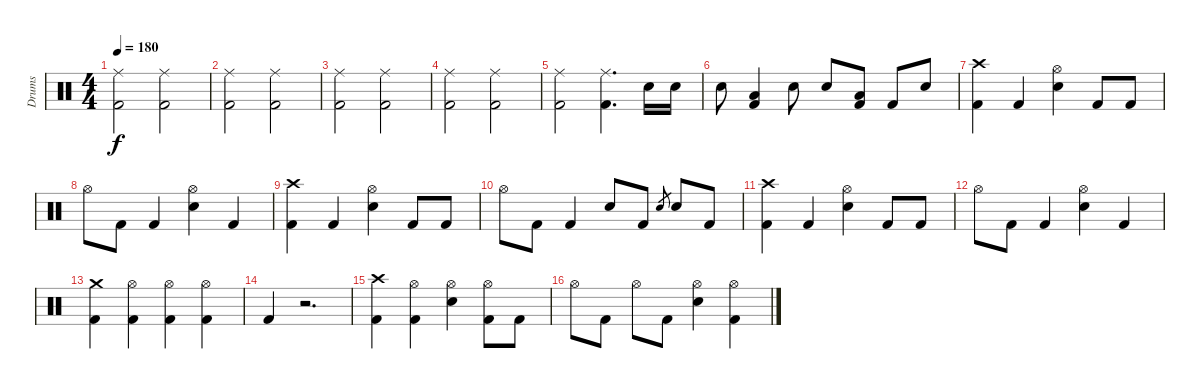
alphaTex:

\track ("Drums" "Drums") {instrument percussion}
\staff {score}
\articulation defaults
\ts (4 4)
\tempo 180
\clef neutral
\ks c
("Ride (middle)" "Kick (hit) 2").2{dy f} ("Ride (middle)" "Kick (hit) 2").2 |
("Ride (middle)" "Kick (hit) 2").2 ("Ride (middle)" "Kick (hit) 2").2 |
("Ride (middle)" "Kick (hit) 2").2 ("Ride (middle)" "Kick (hit) 2").2 |
("Ride (middle)" "Kick (hit) 2").2 ("Ride (middle)" "Kick (hit) 2").2 |
("Ride (middle)" "Kick (hit) 2").2 ("Ride (middle)" "Kick (hit) 2").4{d} "Electric Snare (hit)".16 "Electric Snare (hit)".16 |
"Electric Snare (hit)".8 ("Low Floor Tom (hit)" "Kick (hit) 2").4 "Electric Snare (hit)".8 "Electric Snare (hit)".8 ("Low Floor Tom (hit)" "Kick (hit) 2").8 "Kick (hit) 2".8 "Electric Snare (hit)".8 |
("Crash high (hit)" "Kick (hit) 2").4 "Kick (hit) 2".4 ("Hi-Hat (open)" "Electric Snare (hit)").4 "Kick (hit) 2".8 "Kick (hit) 2".8 |
"Hi-Hat (open)".8 "Kick (hit) 2".8 "Kick (hit) 2".4 ("Hi-Hat (open)" "Electric Snare (hit)").4 "Kick (hit) 2".4 |
("Crash high (hit)" "Kick (hit) 2").4 "Kick (hit) 2".4 ("Hi-Hat (open)" "Electric Snare (hit)").4 "Kick (hit) 2".8 "Kick (hit) 2".8 |
"Hi-Hat (open)".8 "Kick (hit) 2".8 "Kick (hit) 2".4 "Electric Snare (hit)".8 "Kick (hit) 2".8 "Electric Snare (hit)".8{gr} "Electric Snare (hit)".8 "Kick (hit) 2".8 |
("Crash high (hit)" "Kick (hit) 2").4 "Kick (hit) 2".4 ("Hi-Hat (open)" "Electric Snare (hit)").4 "Kick (hit) 2".8 "Kick (hit) 2".8 |
"Hi-Hat (open)".8 "Kick (hit) 2".8 "Kick (hit) 2".4 ("Hi-Hat (open)" "Electric Snare (hit)").4 "Kick (hit) 2".4 |
("Crash medium (hit)" "Kick (hit) 2").4 ("Hi-Hat (open)" "Kick (hit) 2").4 ("Hi-Hat (open)" "Kick (hit) 2").4 ("Hi-Hat (open)" "Kick (hit) 2").4 |
"Kick (hit) 2".4 r.2{d} |
("Crash high (hit)" "Kick (hit) 2").4 ("Hi-Hat (open)" "Kick (hit) 2").4 ("Hi-Hat (open)" "Electric Snare (hit)").4 ("Hi-Hat (open)" "Kick (hit) 2").8 "Kick (hit) 2".8 |
"Hi-Hat (open)".8 "Kick (hit) 2".8 "Hi-Hat (open)".8 "Kick (hit) 2".8 ("Hi-Hat (open)" "Electric Snare (hit)").4 ("Hi-Hat (open)" "Kick (hit) 2").4
